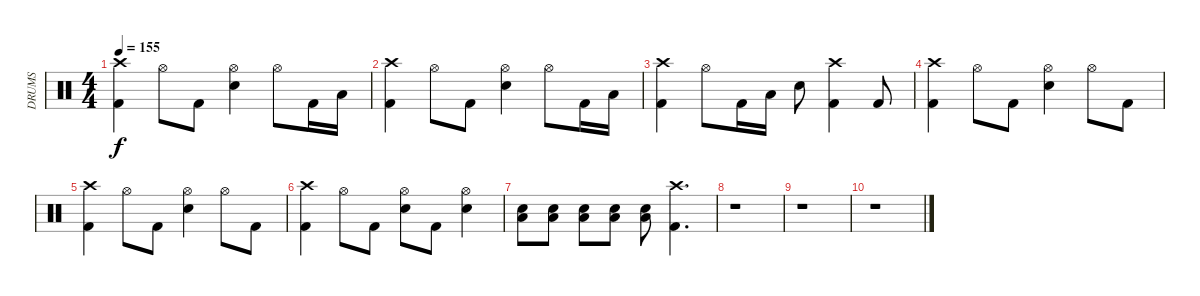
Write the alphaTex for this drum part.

\track ("DRUMS" "DRUMS") {instrument percussion}
\staff {score}
\articulation defaults
\ts (4 4)
\tempo 155
\clef neutral
\ks c
("Crash high (hit)" "Kick (hit) 2").4{dy f} "Hi-Hat (open)".8 "Kick (hit) 2".8 ("Hi-Hat (open)" "Electric Snare (hit)").4 "Hi-Hat (open)".8 "Kick (hit) 2".16 "Low Floor Tom (hit)".16 |
("Crash high (hit)" "Kick (hit) 2").4 "Hi-Hat (open)".8 "Kick (hit) 2".8 ("Hi-Hat (open)" "Electric Snare (hit)").4 "Hi-Hat (open)".8 "Kick (hit) 2".16 "Low Floor Tom (hit)".16 |
("Crash high (hit)" "Kick (hit) 2").4 "Hi-Hat (open)".8 "Kick (hit) 2".16 "Low Floor Tom (hit)".16 "Electric Snare (hit)".8 ("Crash high (hit)" "Kick (hit) 2").4 "Kick (hit) 2".8 |
("Crash high (hit)" "Kick (hit) 2").4 "Hi-Hat (open)".8 "Kick (hit) 2".8 ("Hi-Hat (open)" "Electric Snare (hit)").4 "Hi-Hat (open)".8 "Kick (hit) 2".8 |
("Crash high (hit)" "Kick (hit) 2").4 "Hi-Hat (open)".8 "Kick (hit) 2".8 ("Hi-Hat (open)" "Electric Snare (hit)").4 "Hi-Hat (open)".8 "Kick (hit) 2".8 |
("Crash high (hit)" "Kick (hit) 2").4 "Hi-Hat (open)".8 "Kick (hit) 2".8 ("Hi-Hat (open)" "Electric Snare (hit)").8 "Kick (hit) 2".8 ("Hi-Hat (open)" "Electric Snare (hit)").4 |
("Low Floor Tom (hit)" "Electric Snare (hit)").8 ("Low Floor Tom (hit)" "Electric Snare (hit)").8 ("Low Floor Tom (hit)" "Electric Snare (hit)").8 ("Low Floor Tom (hit)" "Electric Snare (hit)").8 ("Low Floor Tom (hit)" "Electric Snare (hit)").8 ("Crash high (hit)" "Kick (hit) 2").4{d} |
r.1 |
r.1 |
r.1
